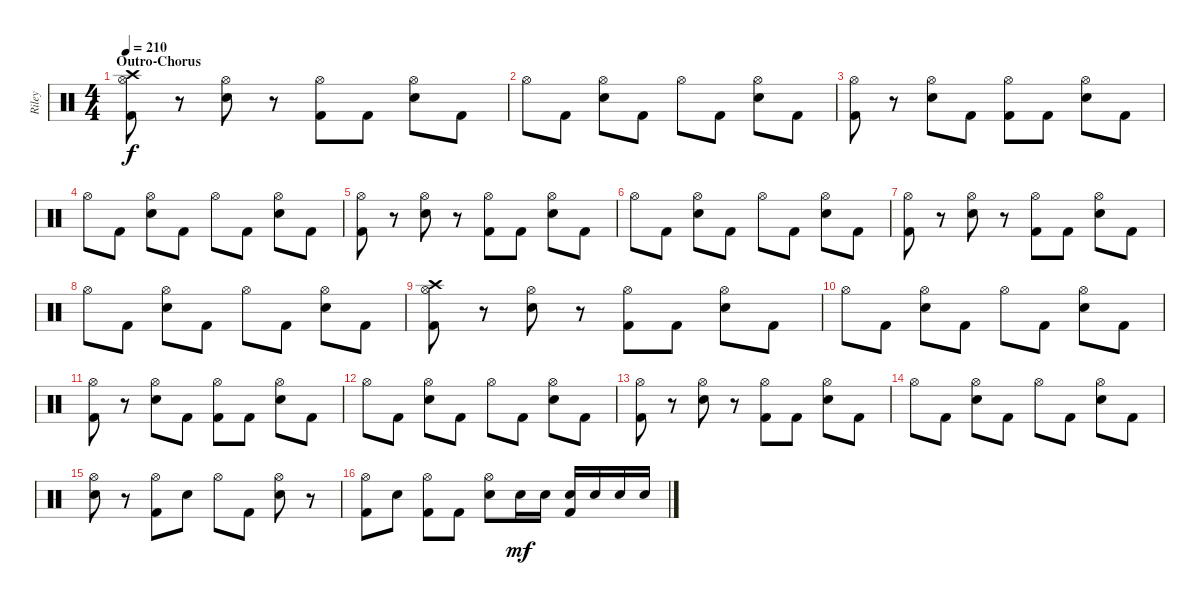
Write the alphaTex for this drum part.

\track ("Riley" "Riley") {instrument percussion}
\staff {score}
\articulation defaults
\ts (4 4)
\section ("" "Outro-Chorus")
\tempo 210
\clef neutral
\ks c
("Crash high (hit)" "Hi-Hat (open)" "Kick (hit) 2").8{dy f} r.8 ("Hi-Hat (open)" "Electric Snare (hit)").8 r.8 ("Hi-Hat (open)" "Kick (hit) 2").8 "Kick (hit) 2".8 ("Hi-Hat (open)" "Electric Snare (hit)").8 "Kick (hit) 2".8 |
"Hi-Hat (open)".8 "Kick (hit) 2".8 ("Hi-Hat (open)" "Electric Snare (hit)").8 "Kick (hit) 2".8 "Hi-Hat (open)".8 "Kick (hit) 2".8 ("Hi-Hat (open)" "Electric Snare (hit)").8 "Kick (hit) 2".8 |
("Hi-Hat (open)" "Kick (hit) 2").8 r.8 ("Hi-Hat (open)" "Electric Snare (hit)").8 "Kick (hit) 2".8 ("Hi-Hat (open)" "Kick (hit) 2").8 "Kick (hit) 2".8 ("Hi-Hat (open)" "Electric Snare (hit)").8 "Kick (hit) 2".8 |
"Hi-Hat (open)".8 "Kick (hit) 2".8 ("Hi-Hat (open)" "Electric Snare (hit)").8 "Kick (hit) 2".8 "Hi-Hat (open)".8 "Kick (hit) 2".8 ("Hi-Hat (open)" "Electric Snare (hit)").8 "Kick (hit) 2".8 |
("Hi-Hat (open)" "Kick (hit) 2").8 r.8 ("Hi-Hat (open)" "Electric Snare (hit)").8 r.8 ("Hi-Hat (open)" "Kick (hit) 2").8 "Kick (hit) 2".8 ("Hi-Hat (open)" "Electric Snare (hit)").8 "Kick (hit) 2".8 |
"Hi-Hat (open)".8 "Kick (hit) 2".8 ("Hi-Hat (open)" "Electric Snare (hit)").8 "Kick (hit) 2".8 "Hi-Hat (open)".8 "Kick (hit) 2".8 ("Hi-Hat (open)" "Electric Snare (hit)").8 "Kick (hit) 2".8 |
("Hi-Hat (open)" "Kick (hit) 2").8 r.8 ("Hi-Hat (open)" "Electric Snare (hit)").8 r.8 ("Hi-Hat (open)" "Kick (hit) 2").8 "Kick (hit) 2".8 ("Hi-Hat (open)" "Electric Snare (hit)").8 "Kick (hit) 2".8 |
"Hi-Hat (open)".8 "Kick (hit) 2".8 ("Hi-Hat (open)" "Electric Snare (hit)").8 "Kick (hit) 2".8 "Hi-Hat (open)".8 "Kick (hit) 2".8 ("Hi-Hat (open)" "Electric Snare (hit)").8 "Kick (hit) 2".8 |
("Crash high (hit)" "Hi-Hat (open)" "Kick (hit) 2").8 r.8 ("Hi-Hat (open)" "Electric Snare (hit)").8 r.8 ("Hi-Hat (open)" "Kick (hit) 2").8 "Kick (hit) 2".8 ("Hi-Hat (open)" "Electric Snare (hit)").8 "Kick (hit) 2".8 |
"Hi-Hat (open)".8 "Kick (hit) 2".8 ("Hi-Hat (open)" "Electric Snare (hit)").8 "Kick (hit) 2".8 "Hi-Hat (open)".8 "Kick (hit) 2".8 ("Hi-Hat (open)" "Electric Snare (hit)").8 "Kick (hit) 2".8 |
("Hi-Hat (open)" "Kick (hit) 2").8 r.8 ("Hi-Hat (open)" "Electric Snare (hit)").8 "Kick (hit) 2".8 ("Hi-Hat (open)" "Kick (hit) 2").8 "Kick (hit) 2".8 ("Hi-Hat (open)" "Electric Snare (hit)").8 "Kick (hit) 2".8 |
"Hi-Hat (open)".8 "Kick (hit) 2".8 ("Hi-Hat (open)" "Electric Snare (hit)").8 "Kick (hit) 2".8 "Hi-Hat (open)".8 "Kick (hit) 2".8 ("Hi-Hat (open)" "Electric Snare (hit)").8 "Kick (hit) 2".8 |
("Hi-Hat (open)" "Kick (hit) 2").8 r.8 ("Hi-Hat (open)" "Electric Snare (hit)").8 r.8 ("Hi-Hat (open)" "Kick (hit) 2").8 "Kick (hit) 2".8 ("Hi-Hat (open)" "Electric Snare (hit)").8 "Kick (hit) 2".8 |
"Hi-Hat (open)".8 "Kick (hit) 2".8 ("Hi-Hat (open)" "Electric Snare (hit)").8 "Kick (hit) 2".8 "Hi-Hat (open)".8 "Kick (hit) 2".8 ("Hi-Hat (open)" "Electric Snare (hit)").8 "Kick (hit) 2".8 |
("Hi-Hat (open)" "Electric Snare (hit)").8 r.8 ("Hi-Hat (open)" "Kick (hit) 2").8 "Electric Snare (hit)".8 "Hi-Hat (open)".8 "Kick (hit) 2".8 ("Hi-Hat (open)" "Electric Snare (hit)").8 r.8 |
("Hi-Hat (open)" "Kick (hit) 2").8 "Electric Snare (hit)".8 ("Hi-Hat (open)" "Kick (hit) 2").8 "Kick (hit) 2".8 ("Hi-Hat (open)" "Electric Snare (hit)").8 "Electric Snare (hit)".16{dy mf} "Electric Snare (hit)".16 ("Electric Snare (hit)" "Kick (hit) 2").16 "Electric Snare (hit)".16 "Electric Snare (hit)".16 "Electric Snare (hit)".16
